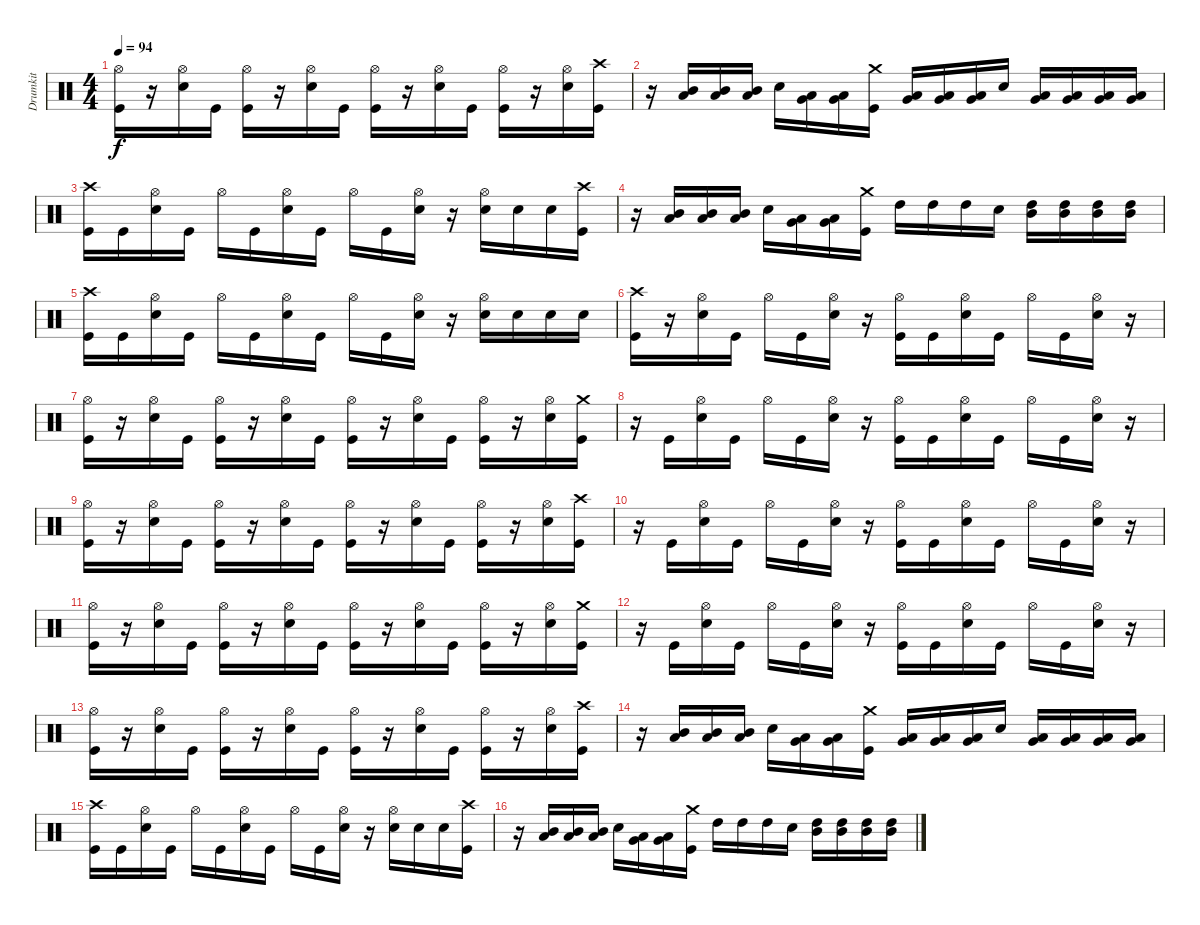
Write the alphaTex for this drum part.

\track ("Drumkit" "Drumkit") {instrument percussion}
\staff {score}
\articulation defaults
\ts (4 4)
\tempo 94
\clef neutral
\ks c
("Hi-Hat (open)" "Kick (hit)").16{dy f} r.16 ("Hi-Hat (open)" "Snare (hit) 2").16 "Kick (hit)".16 ("Hi-Hat (open)" "Kick (hit)").16 r.16 ("Hi-Hat (open)" "Snare (hit) 2").16 "Kick (hit)".16 ("Hi-Hat (open)" "Kick (hit)").16 r.16 ("Hi-Hat (open)" "Snare (hit) 2").16 "Kick (hit)".16 ("Hi-Hat (open)" "Kick (hit)").16 r.16 ("Hi-Hat (open)" "Snare (hit) 2").16 ("Crash high (hit)" "Kick (hit)").16 |
r.16 ("Mid Tom (hit)" "Low Tom (hit)").16 ("Mid Tom (hit)" "Low Tom (hit)").16 ("Mid Tom (hit)" "Low Tom (hit)").16 "Snare (hit) 2".16 ("Low Tom (hit)" "Very Low Tom (hit)").16 ("Low Tom (hit)" "Very Low Tom (hit)").16 ("Crash medium (hit)" "Kick (hit)").16 ("Low Tom (hit)" "Very Low Tom (hit)").16 ("Low Tom (hit)" "Very Low Tom (hit)").16 ("Low Tom (hit)" "Very Low Tom (hit)").16 "Snare (hit) 2".16 ("Very Low Tom (hit)" "Low Floor Tom (hit)").16 ("Very Low Tom (hit)" "Low Floor Tom (hit)").16 ("Very Low Tom (hit)" "Low Floor Tom (hit)").16 ("Very Low Tom (hit)" "Low Floor Tom (hit)").16 |
("Crash high (hit)" "Kick (hit)").16 "Kick (hit)".16 ("Hi-Hat (open)" "Snare (hit) 2").16 "Kick (hit)".16 "Hi-Hat (open)".16 "Kick (hit)".16 ("Hi-Hat (open)" "Snare (hit) 2").16 "Kick (hit)".16 "Hi-Hat (open)".16 "Kick (hit)".16 ("Hi-Hat (open)" "Snare (hit) 2").16 r.16 ("Hi-Hat (open)" "Snare (hit) 2").16 "Snare (hit) 2".16 "Snare (hit) 2".16 ("Crash high (hit)" "Kick (hit)").16 |
r.16 ("Mid Tom (hit)" "Low Tom (hit)").16 ("Mid Tom (hit)" "Low Tom (hit)").16 ("Mid Tom (hit)" "Low Tom (hit)").16 "Snare (hit) 2".16 ("Low Tom (hit)" "Very Low Tom (hit)").16 ("Low Tom (hit)" "Very Low Tom (hit)").16 ("Crash medium (hit)" "Kick (hit)").16 "High Tom (hit)".16 "High Tom (hit)".16 "High Tom (hit)".16 "Snare (hit) 2".16 ("High Tom (hit)" "Mid Tom (hit)").16 ("High Tom (hit)" "Mid Tom (hit)").16 ("High Tom (hit)" "Mid Tom (hit)").16 ("High Tom (hit)" "Mid Tom (hit)").16 |
("Crash high (hit)" "Kick (hit)").16 "Kick (hit)".16 ("Hi-Hat (open)" "Snare (hit) 2").16 "Kick (hit)".16 "Hi-Hat (open)".16 "Kick (hit)".16 ("Hi-Hat (open)" "Snare (hit) 2").16 "Kick (hit)".16 "Hi-Hat (open)".16 "Kick (hit)".16 ("Hi-Hat (open)" "Snare (hit) 2").16 r.16 ("Hi-Hat (open)" "Snare (hit) 2").16 "Snare (hit) 2".16 "Snare (hit) 2".16 "Snare (hit) 2".16 |
("Crash high (hit)" "Kick (hit)").16 r.16 ("Hi-Hat (open)" "Snare (hit) 2").16 "Kick (hit)".16 "Hi-Hat (open)".16 "Kick (hit)".16 ("Hi-Hat (open)" "Snare (hit) 2").16 r.16 ("Hi-Hat (open)" "Kick (hit)").16 "Kick (hit)".16 ("Hi-Hat (open)" "Snare (hit) 2").16 "Kick (hit)".16 "Hi-Hat (open)".16 "Kick (hit)".16 ("Hi-Hat (open)" "Snare (hit) 2").16 r.16 |
("Hi-Hat (open)" "Kick (hit)").16 r.16 ("Hi-Hat (open)" "Snare (hit) 2").16 "Kick (hit)".16 ("Hi-Hat (open)" "Kick (hit)").16 r.16 ("Hi-Hat (open)" "Snare (hit) 2").16 "Kick (hit)".16 ("Hi-Hat (open)" "Kick (hit)").16 r.16 ("Hi-Hat (open)" "Snare (hit) 2").16 "Kick (hit)".16 ("Hi-Hat (open)" "Kick (hit)").16 r.16 ("Hi-Hat (open)" "Snare (hit) 2").16 ("Crash medium (hit)" "Kick (hit)").16 |
r.16 "Kick (hit)".16 ("Hi-Hat (open)" "Snare (hit) 2").16 "Kick (hit)".16 "Hi-Hat (open)".16 "Kick (hit)".16 ("Hi-Hat (open)" "Snare (hit) 2").16 r.16 ("Hi-Hat (open)" "Kick (hit)").16 "Kick (hit)".16 ("Hi-Hat (open)" "Snare (hit) 2").16 "Kick (hit)".16 "Hi-Hat (open)".16 "Kick (hit)".16 ("Hi-Hat (open)" "Snare (hit) 2").16 r.16 |
("Hi-Hat (open)" "Kick (hit)").16 r.16 ("Hi-Hat (open)" "Snare (hit) 2").16 "Kick (hit)".16 ("Hi-Hat (open)" "Kick (hit)").16 r.16 ("Hi-Hat (open)" "Snare (hit) 2").16 "Kick (hit)".16 ("Hi-Hat (open)" "Kick (hit)").16 r.16 ("Hi-Hat (open)" "Snare (hit) 2").16 "Kick (hit)".16 ("Hi-Hat (open)" "Kick (hit)").16 r.16 ("Hi-Hat (open)" "Snare (hit) 2").16 ("Crash high (hit)" "Kick (hit)").16 |
r.16 "Kick (hit)".16 ("Hi-Hat (open)" "Snare (hit) 2").16 "Kick (hit)".16 "Hi-Hat (open)".16 "Kick (hit)".16 ("Hi-Hat (open)" "Snare (hit) 2").16 r.16 ("Hi-Hat (open)" "Kick (hit)").16 "Kick (hit)".16 ("Hi-Hat (open)" "Snare (hit) 2").16 "Kick (hit)".16 "Hi-Hat (open)".16 "Kick (hit)".16 ("Hi-Hat (open)" "Snare (hit) 2").16 r.16 |
("Hi-Hat (open)" "Kick (hit)").16 r.16 ("Hi-Hat (open)" "Snare (hit) 2").16 "Kick (hit)".16 ("Hi-Hat (open)" "Kick (hit)").16 r.16 ("Hi-Hat (open)" "Snare (hit) 2").16 "Kick (hit)".16 ("Hi-Hat (open)" "Kick (hit)").16 r.16 ("Hi-Hat (open)" "Snare (hit) 2").16 "Kick (hit)".16 ("Hi-Hat (open)" "Kick (hit)").16 r.16 ("Hi-Hat (open)" "Snare (hit) 2").16 ("Crash medium (hit)" "Kick (hit)").16 |
r.16 "Kick (hit)".16 ("Hi-Hat (open)" "Snare (hit) 2").16 "Kick (hit)".16 "Hi-Hat (open)".16 "Kick (hit)".16 ("Hi-Hat (open)" "Snare (hit) 2").16 r.16 ("Hi-Hat (open)" "Kick (hit)").16 "Kick (hit)".16 ("Hi-Hat (open)" "Snare (hit) 2").16 "Kick (hit)".16 "Hi-Hat (open)".16 "Kick (hit)".16 ("Hi-Hat (open)" "Snare (hit) 2").16 r.16 |
("Hi-Hat (open)" "Kick (hit)").16 r.16 ("Hi-Hat (open)" "Snare (hit) 2").16 "Kick (hit)".16 ("Hi-Hat (open)" "Kick (hit)").16 r.16 ("Hi-Hat (open)" "Snare (hit) 2").16 "Kick (hit)".16 ("Hi-Hat (open)" "Kick (hit)").16 r.16 ("Hi-Hat (open)" "Snare (hit) 2").16 "Kick (hit)".16 ("Hi-Hat (open)" "Kick (hit)").16 r.16 ("Hi-Hat (open)" "Snare (hit) 2").16 ("Crash high (hit)" "Kick (hit)").16 |
r.16 ("Mid Tom (hit)" "Low Tom (hit)").16 ("Mid Tom (hit)" "Low Tom (hit)").16 ("Mid Tom (hit)" "Low Tom (hit)").16 "Snare (hit) 2".16 ("Low Tom (hit)" "Very Low Tom (hit)").16 ("Low Tom (hit)" "Very Low Tom (hit)").16 ("Crash medium (hit)" "Kick (hit)").16 ("Low Tom (hit)" "Very Low Tom (hit)").16 ("Low Tom (hit)" "Very Low Tom (hit)").16 ("Low Tom (hit)" "Very Low Tom (hit)").16 "Snare (hit) 2".16 ("Very Low Tom (hit)" "Low Floor Tom (hit)").16 ("Very Low Tom (hit)" "Low Floor Tom (hit)").16 ("Very Low Tom (hit)" "Low Floor Tom (hit)").16 ("Very Low Tom (hit)" "Low Floor Tom (hit)").16 |
("Crash high (hit)" "Kick (hit)").16 "Kick (hit)".16 ("Hi-Hat (open)" "Snare (hit) 2").16 "Kick (hit)".16 "Hi-Hat (open)".16 "Kick (hit)".16 ("Hi-Hat (open)" "Snare (hit) 2").16 "Kick (hit)".16 "Hi-Hat (open)".16 "Kick (hit)".16 ("Hi-Hat (open)" "Snare (hit) 2").16 r.16 ("Hi-Hat (open)" "Snare (hit) 2").16 "Snare (hit) 2".16 "Snare (hit) 2".16 ("Crash high (hit)" "Kick (hit)").16 |
r.16 ("Mid Tom (hit)" "Low Tom (hit)").16 ("Mid Tom (hit)" "Low Tom (hit)").16 ("Mid Tom (hit)" "Low Tom (hit)").16 "Snare (hit) 2".16 ("Low Tom (hit)" "Very Low Tom (hit)").16 ("Low Tom (hit)" "Very Low Tom (hit)").16 ("Crash medium (hit)" "Kick (hit)").16 "High Tom (hit)".16 "High Tom (hit)".16 "High Tom (hit)".16 "Snare (hit) 2".16 ("High Tom (hit)" "Mid Tom (hit)").16 ("High Tom (hit)" "Mid Tom (hit)").16 ("High Tom (hit)" "Mid Tom (hit)").16 ("High Tom (hit)" "Mid Tom (hit)").16
